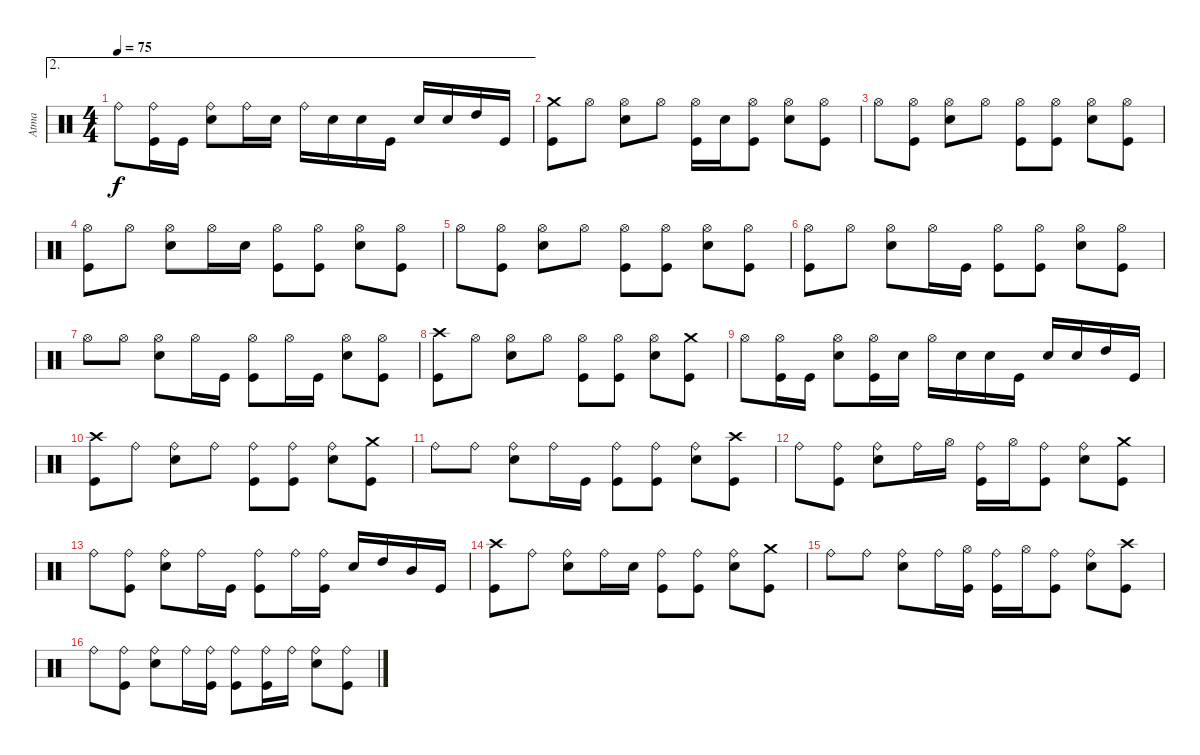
\track ("Atma" "Atma") {instrument percussion}
\staff {score}
\articulation defaults
\ae 2
\ts (4 4)
\tempo 75
\clef neutral
\ks c "Ride (bell)".8{dy f}
("Kick (hit)" "Ride (bell)").16 "Kick (hit)".16 ("Snare (hit) 2" "Ride (bell)").8 "Ride (bell)".16 "Snare (hit) 2".16 "Ride (bell)".16 "Snare (hit) 2".16 "Snare (hit) 2".16 "Kick (hit)".16 "Snare (hit) 2".16 "Snare (hit) 2".16 "High Tom (hit)".16 "Kick (hit)".16 |
("Kick (hit)" "Crash medium (hit)").8 "Hi-Hat (open)".8 ("Snare (hit) 2" "Hi-Hat (open)").8 "Hi-Hat (open)".8 ("Kick (hit)" "Hi-Hat (open)").16 "Snare (hit) 2".16 ("Kick (hit)" "Hi-Hat (open)").8 ("Snare (hit) 2" "Hi-Hat (open)").8 ("Kick (hit)" "Hi-Hat (open)").8 |
"Hi-Hat (open)".8 ("Kick (hit)" "Hi-Hat (open)").8 ("Snare (hit) 2" "Hi-Hat (open)").8 "Hi-Hat (open)".8 ("Kick (hit)" "Hi-Hat (open)").8 ("Kick (hit)" "Hi-Hat (open)").8 ("Snare (hit) 2" "Hi-Hat (open)").8 ("Kick (hit)" "Hi-Hat (open)").8 |
("Kick (hit)" "Hi-Hat (open)").8 "Hi-Hat (open)".8 ("Snare (hit) 2" "Hi-Hat (open)").8 "Hi-Hat (open)".16 "Snare (hit) 2".16 ("Kick (hit)" "Hi-Hat (open)").8 ("Kick (hit)" "Hi-Hat (open)").8 ("Snare (hit) 2" "Hi-Hat (open)").8 ("Kick (hit)" "Hi-Hat (open)").8 |
"Hi-Hat (open)".8 ("Kick (hit)" "Hi-Hat (open)").8 ("Snare (hit) 2" "Hi-Hat (open)").8 "Hi-Hat (open)".8 ("Kick (hit)" "Hi-Hat (open)").8 ("Kick (hit)" "Hi-Hat (open)").8 ("Snare (hit) 2" "Hi-Hat (open)").8 ("Kick (hit)" "Hi-Hat (open)").8 |
("Kick (hit)" "Hi-Hat (open)").8 "Hi-Hat (open)".8 ("Snare (hit) 2" "Hi-Hat (open)").8 "Hi-Hat (open)".16 "Kick (hit)".16 ("Kick (hit)" "Hi-Hat (open)").8 ("Kick (hit)" "Hi-Hat (open)").8 ("Snare (hit) 2" "Hi-Hat (open)").8 ("Kick (hit)" "Hi-Hat (open)").8 |
"Hi-Hat (open)".8 "Hi-Hat (open)".8 ("Snare (hit) 2" "Hi-Hat (open)").8 "Hi-Hat (open)".16 "Kick (hit)".16 ("Kick (hit)" "Hi-Hat (open)").8 "Hi-Hat (open)".16 "Kick (hit)".16 ("Snare (hit) 2" "Hi-Hat (open)").8 ("Kick (hit)" "Hi-Hat (open)").8 |
("Kick (hit)" "Crash high (hit)").8 "Hi-Hat (open)".8 ("Snare (hit) 2" "Hi-Hat (open)").8 "Hi-Hat (open)".8 ("Kick (hit)" "Hi-Hat (open)").8 ("Kick (hit)" "Hi-Hat (open)").8 ("Snare (hit) 2" "Hi-Hat (open)").8 ("Kick (hit)" "Crash medium (hit)").8 |
"Hi-Hat (open)".8 ("Kick (hit)" "Hi-Hat (open)").16 "Kick (hit)".16 ("Snare (hit) 2" "Hi-Hat (open)").8 ("Kick (hit)" "Hi-Hat (open)").16 "Snare (hit) 2".16 "Hi-Hat (open)".16 "Snare (hit) 2".16 "Snare (hit) 2".16 "Kick (hit)".16 "Snare (hit) 2".16 "Snare (hit) 2".16 "High Tom (hit)".16 "Kick (hit)".16 |
("Kick (hit)" "Crash high (hit)").8 "Ride (bell)".8 ("Snare (hit) 2" "Ride (bell)").8 "Ride (bell)".8 ("Kick (hit)" "Ride (bell)").8 ("Kick (hit)" "Ride (bell)").8 ("Snare (hit) 2" "Ride (bell)").8 ("Kick (hit)" "Crash medium (hit)").8 |
"Ride (bell)".8 "Ride (bell)".8 ("Snare (hit) 2" "Ride (bell)").8 "Ride (bell)".16 "Kick (hit)".16 ("Kick (hit)" "Ride (bell)").8 ("Kick (hit)" "Ride (bell)").8 ("Snare (hit) 2" "Ride (bell)").8 ("Kick (hit)" "Crash high (hit)").8 |
"Ride (bell)".8 ("Kick (hit)" "Ride (bell)").8 ("Snare (hit) 2" "Ride (bell)").8 "Ride (bell)".16 "Hi-Hat (open)".16 ("Kick (hit)" "Ride (bell)").16 "Hi-Hat (open)".16 ("Kick (hit)" "Ride (bell)").8 ("Snare (hit) 2" "Ride (bell)").8 ("Kick (hit)" "Crash medium (hit)").8 |
"Ride (bell)".8 ("Kick (hit)" "Ride (bell)").8 ("Snare (hit) 2" "Ride (bell)").8 "Ride (bell)".16 "Kick (hit)".16 ("Kick (hit)" "Ride (bell)").8 "Ride (bell)".16 ("Kick (hit)" "Ride (bell)").16 "Snare (hit) 2".16 "High Tom (hit)".16 "Mid Tom (hit)".16 "Kick (hit)".16 |
("Kick (hit)" "Crash high (hit)").8 "Ride (bell)".8 ("Snare (hit) 2" "Ride (bell)").8 "Ride (bell)".16 "Snare (hit) 2".16 ("Kick (hit)" "Ride (bell)").8 ("Kick (hit)" "Ride (bell)").8 ("Snare (hit) 2" "Ride (bell)").8 ("Kick (hit)" "Crash medium (hit)").8 |
"Ride (bell)".8 "Ride (bell)".8 ("Snare (hit) 2" "Ride (bell)").8 "Ride (bell)".16 ("Kick (hit)" "Hi-Hat (open)").16 ("Kick (hit)" "Ride (bell)").16 "Hi-Hat (open)".16 ("Kick (hit)" "Ride (bell)").8 ("Snare (hit) 2" "Ride (bell)").8 ("Kick (hit)" "Crash high (hit)").8 |
"Ride (bell)".8 ("Kick (hit)" "Ride (bell)").8 ("Snare (hit) 2" "Ride (bell)").8 "Ride (bell)".16 ("Kick (hit)" "Ride (bell)").16 ("Kick (hit)" "Ride (bell)").8 ("Kick (hit)" "Ride (bell)").16 "Ride (bell)".16 ("Snare (hit) 2" "Ride (bell)").8 ("Kick (hit)" "Ride (bell)").8
